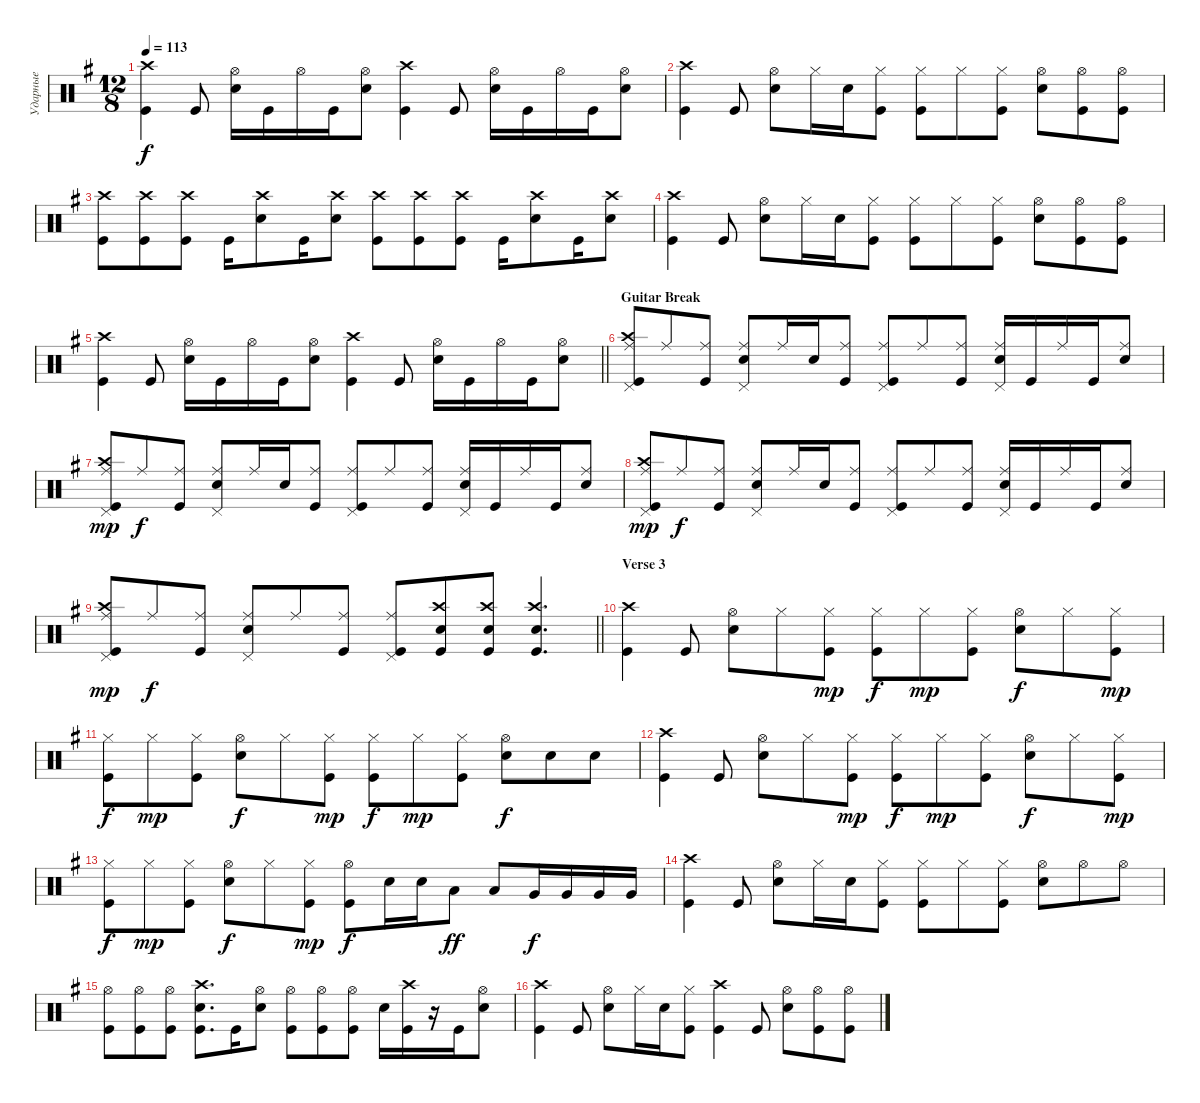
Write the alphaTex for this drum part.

\track ("Ударные" "Ударные") {instrument percussion}
\staff {score}
\articulation defaults
\ts (12 8)
\tempo 113
\clef neutral
\ks eminor
("Kick (hit)" "Crash high (hit)").4{dy f} "Kick (hit)".8 ("Snare (hit) 2" "Hi-Hat (open)").16 "Kick (hit)".16 "Hi-Hat (open)".16 "Kick (hit)".16 ("Hi-Hat (open)" "Snare (hit) 2").8 ("Kick (hit)" "Crash high (hit)").4 "Kick (hit)".8 ("Snare (hit) 2" "Hi-Hat (open)").16 "Kick (hit)".16 "Hi-Hat (open)".16 "Kick (hit)".16 ("Hi-Hat (open)" "Snare (hit) 2").8 |
("Kick (hit)" "Crash high (hit)").4 "Kick (hit)".8 ("Snare (hit) 2" "Hi-Hat (open)").8 "Hi-Hat (closed)".16 "Snare (hit) 2".16 ("Kick (hit)" "Hi-Hat (closed)").8 ("Kick (hit)" "Hi-Hat (closed)").8 "Hi-Hat (closed)".8 ("Hi-Hat (closed)" "Kick (hit)").8 ("Snare (hit) 2" "Hi-Hat (open)").8 ("Hi-Hat (open)" "Kick (hit)").8 ("Hi-Hat (open)" "Kick (hit)").8 |
("Kick (hit)" "Crash high (hit)").8 ("Kick (hit)" "Crash high (hit)").8 ("Kick (hit)" "Crash high (hit)").8 "Kick (hit)".16 ("Snare (hit) 2" "Crash high (hit)").8 "Kick (hit)".16 ("Snare (hit) 2" "Crash high (hit)").8 ("Kick (hit)" "Crash high (hit)").8 ("Kick (hit)" "Crash high (hit)").8 ("Kick (hit)" "Crash high (hit)").8 "Kick (hit)".16 ("Snare (hit) 2" "Crash high (hit)").8 "Kick (hit)".16 ("Snare (hit) 2" "Crash high (hit)").8 |
("Kick (hit)" "Crash high (hit)").4 "Kick (hit)".8 ("Snare (hit) 2" "Hi-Hat (open)").8 "Hi-Hat (closed)".16 "Snare (hit) 2".16 ("Kick (hit)" "Hi-Hat (closed)").8 ("Kick (hit)" "Hi-Hat (closed)").8 "Hi-Hat (closed)".8 ("Hi-Hat (closed)" "Kick (hit)").8 ("Snare (hit) 2" "Hi-Hat (open)").8 ("Hi-Hat (open)" "Kick (hit)").8 ("Hi-Hat (open)" "Kick (hit)").8 |
\barLineRight lightlight
("Kick (hit)" "Crash high (hit)").4 "Kick (hit)".8 ("Snare (hit) 2" "Hi-Hat (open)").16 "Kick (hit)".16 "Hi-Hat (open)".16 "Kick (hit)".16 ("Hi-Hat (open)" "Snare (hit) 2").8 ("Kick (hit)" "Crash high (hit)").4 "Kick (hit)".8 ("Snare (hit) 2" "Hi-Hat (open)").16 "Kick (hit)".16 "Hi-Hat (open)".16 "Kick (hit)".16 ("Hi-Hat (open)" "Snare (hit) 2").8 |
\section ("" "Guitar Break")
("Ride (middle)" "Kick (hit)" "Crash high (hit)" "Pedal Hi-Hat (hit)").8 "Ride (middle)".8 ("Ride (middle)" "Kick (hit)").8 ("Ride (middle)" "Snare (hit) 2" "Pedal Hi-Hat (hit)").8 "Ride (middle)".16 "Snare (hit) 2".16 ("Ride (middle)" "Kick (hit)").8 ("Ride (middle)" "Kick (hit)" "Pedal Hi-Hat (hit)").8 "Ride (middle)".8 ("Ride (middle)" "Kick (hit)").8 ("Ride (middle)" "Snare (hit) 2" "Pedal Hi-Hat (hit)").16 "Kick (hit)".16 "Ride (middle)".16 "Kick (hit)".16 ("Ride (middle)" "Snare (hit) 2").8 |
("Crash high (hit)" "Kick (hit)" "Ride (middle)" "Pedal Hi-Hat (hit)").8{dy mp} "Ride (middle)".8{dy f} ("Ride (middle)" "Kick (hit)").8 ("Ride (middle)" "Snare (hit) 2" "Pedal Hi-Hat (hit)").8 "Ride (middle)".16 "Snare (hit) 2".16 ("Ride (middle)" "Kick (hit)").8 ("Ride (middle)" "Kick (hit)" "Pedal Hi-Hat (hit)").8 "Ride (middle)".8 ("Ride (middle)" "Kick (hit)").8 ("Ride (middle)" "Snare (hit) 2" "Pedal Hi-Hat (hit)").16 "Kick (hit)".16 "Ride (middle)".16 "Kick (hit)".16 ("Ride (middle)" "Snare (hit) 2").8 |
("Crash high (hit)" "Kick (hit)" "Ride (middle)" "Pedal Hi-Hat (hit)").8{dy mp} "Ride (middle)".8{dy f} ("Ride (middle)" "Kick (hit)").8 ("Ride (middle)" "Snare (hit) 2" "Pedal Hi-Hat (hit)").8 "Ride (middle)".16 "Snare (hit) 2".16 ("Ride (middle)" "Kick (hit)").8 ("Ride (middle)" "Kick (hit)" "Pedal Hi-Hat (hit)").8 "Ride (middle)".8 ("Ride (middle)" "Kick (hit)").8 ("Ride (middle)" "Snare (hit) 2" "Pedal Hi-Hat (hit)").16 "Kick (hit)".16 "Ride (middle)".16 "Kick (hit)".16 ("Ride (middle)" "Snare (hit) 2").8 |
\barLineRight lightlight
("Ride (middle)" "Kick (hit)" "Crash high (hit)" "Pedal Hi-Hat (hit)").8{dy mp} "Ride (middle)".8{dy f} ("Ride (middle)" "Kick (hit)").8 ("Ride (middle)" "Snare (hit) 2" "Pedal Hi-Hat (hit)").8 "Ride (middle)".8 ("Ride (middle)" "Kick (hit)").8 ("Ride (middle)" "Kick (hit)" "Pedal Hi-Hat (hit)").8 ("Kick (hit)" "Crash high (hit)" "Snare (hit) 2").8 ("Kick (hit)" "Crash high (hit)" "Snare (hit) 2").8 ("Kick (hit)" "Snare (hit) 2" "Crash high (hit)").4{d} |
\section ("" "Verse 3")
("Kick (hit)" "Crash high (hit)").4 "Kick (hit)".8 ("Snare (hit) 2" "Hi-Hat (open)").8 "Hi-Hat (closed)".8 ("Hi-Hat (closed)" "Kick (hit)").8{dy mp} ("Kick (hit)" "Hi-Hat (closed)").8{dy f} "Hi-Hat (closed)".8{dy mp} ("Hi-Hat (closed)" "Kick (hit)").8 ("Snare (hit) 2" "Hi-Hat (open)").8{dy f} "Hi-Hat (closed)".8 ("Hi-Hat (closed)" "Kick (hit)").8{dy mp} |
("Kick (hit)" "Hi-Hat (closed)").8{dy f} "Hi-Hat (closed)".8{dy mp} ("Hi-Hat (closed)" "Kick (hit)").8 ("Snare (hit) 2" "Hi-Hat (open)").8{dy f} "Hi-Hat (closed)".8 ("Hi-Hat (closed)" "Kick (hit)").8{dy mp} ("Kick (hit)" "Hi-Hat (closed)").8{dy f} "Hi-Hat (closed)".8{dy mp} ("Hi-Hat (closed)" "Kick (hit)").8 ("Snare (hit) 2" "Hi-Hat (open)").8{dy f} "Snare (hit) 2".8 "Snare (hit) 2".8 |
("Kick (hit)" "Crash high (hit)").4 "Kick (hit)".8 ("Snare (hit) 2" "Hi-Hat (open)").8 "Hi-Hat (closed)".8 ("Hi-Hat (closed)" "Kick (hit)").8{dy mp} ("Kick (hit)" "Hi-Hat (closed)").8{dy f} "Hi-Hat (closed)".8{dy mp} ("Hi-Hat (closed)" "Kick (hit)").8 ("Snare (hit) 2" "Hi-Hat (open)").8{dy f} "Hi-Hat (closed)".8 ("Hi-Hat (closed)" "Kick (hit)").8{dy mp} |
("Kick (hit)" "Hi-Hat (closed)").8{dy f} "Hi-Hat (closed)".8{dy mp} ("Hi-Hat (closed)" "Kick (hit)").8 ("Snare (hit) 2" "Hi-Hat (open)").8{dy f} "Hi-Hat (closed)".8 ("Hi-Hat (closed)" "Kick (hit)").8{dy mp} ("Hi-Hat (open)" "Kick (hit)").8{dy f} "Snare (hit) 2".16 "Snare (hit) 2".16 "Low Tom (hit)".8{dy ff} "Low Tom (hit)".8 "Very Low Tom (hit)".16{bd 120 dy f} "Very Low Tom (hit)".16{bd 60} "Very Low Tom (hit)".16 "Very Low Tom (hit)".16 |
("Kick (hit)" "Crash high (hit)").4 "Kick (hit)".8 ("Snare (hit) 2" "Hi-Hat (open)").8 "Hi-Hat (closed)".16 "Snare (hit) 2".16 ("Hi-Hat (closed)" "Kick (hit)").8 ("Kick (hit)" "Hi-Hat (closed)").8 "Hi-Hat (closed)".8 ("Kick (hit)" "Hi-Hat (closed)").8 ("Snare (hit) 2" "Hi-Hat (open)").8 "Hi-Hat (open)".8 "Hi-Hat (open)".8 |
("Kick (hit)" "Hi-Hat (open)").8 ("Kick (hit)" "Hi-Hat (open)").8 ("Kick (hit)" "Hi-Hat (open)").8 ("Kick (hit)" "Snare (hit) 2" "Crash high (hit)").8{d} "Kick (hit)".16 ("Snare (hit) 2" "Hi-Hat (open)").8 ("Kick (hit)" "Hi-Hat (open)").8 ("Kick (hit)" "Hi-Hat (open)").8 ("Kick (hit)" "Hi-Hat (open)").8 "Snare (hit) 2".16 ("Kick (hit)" "Crash high (hit)").16 r.16 "Kick (hit)".16 ("Snare (hit) 2" "Hi-Hat (open)").8 |
("Kick (hit)" "Crash high (hit)").4 "Kick (hit)".8 ("Snare (hit) 2" "Hi-Hat (open)").8 "Hi-Hat (closed)".16 "Snare (hit) 2".16 ("Hi-Hat (closed)" "Kick (hit)").8 ("Kick (hit)" "Crash high (hit)").4 "Kick (hit)".8 ("Snare (hit) 2" "Hi-Hat (open)").8 ("Hi-Hat (open)" "Kick (hit)").8 ("Hi-Hat (open)" "Kick (hit)").8
